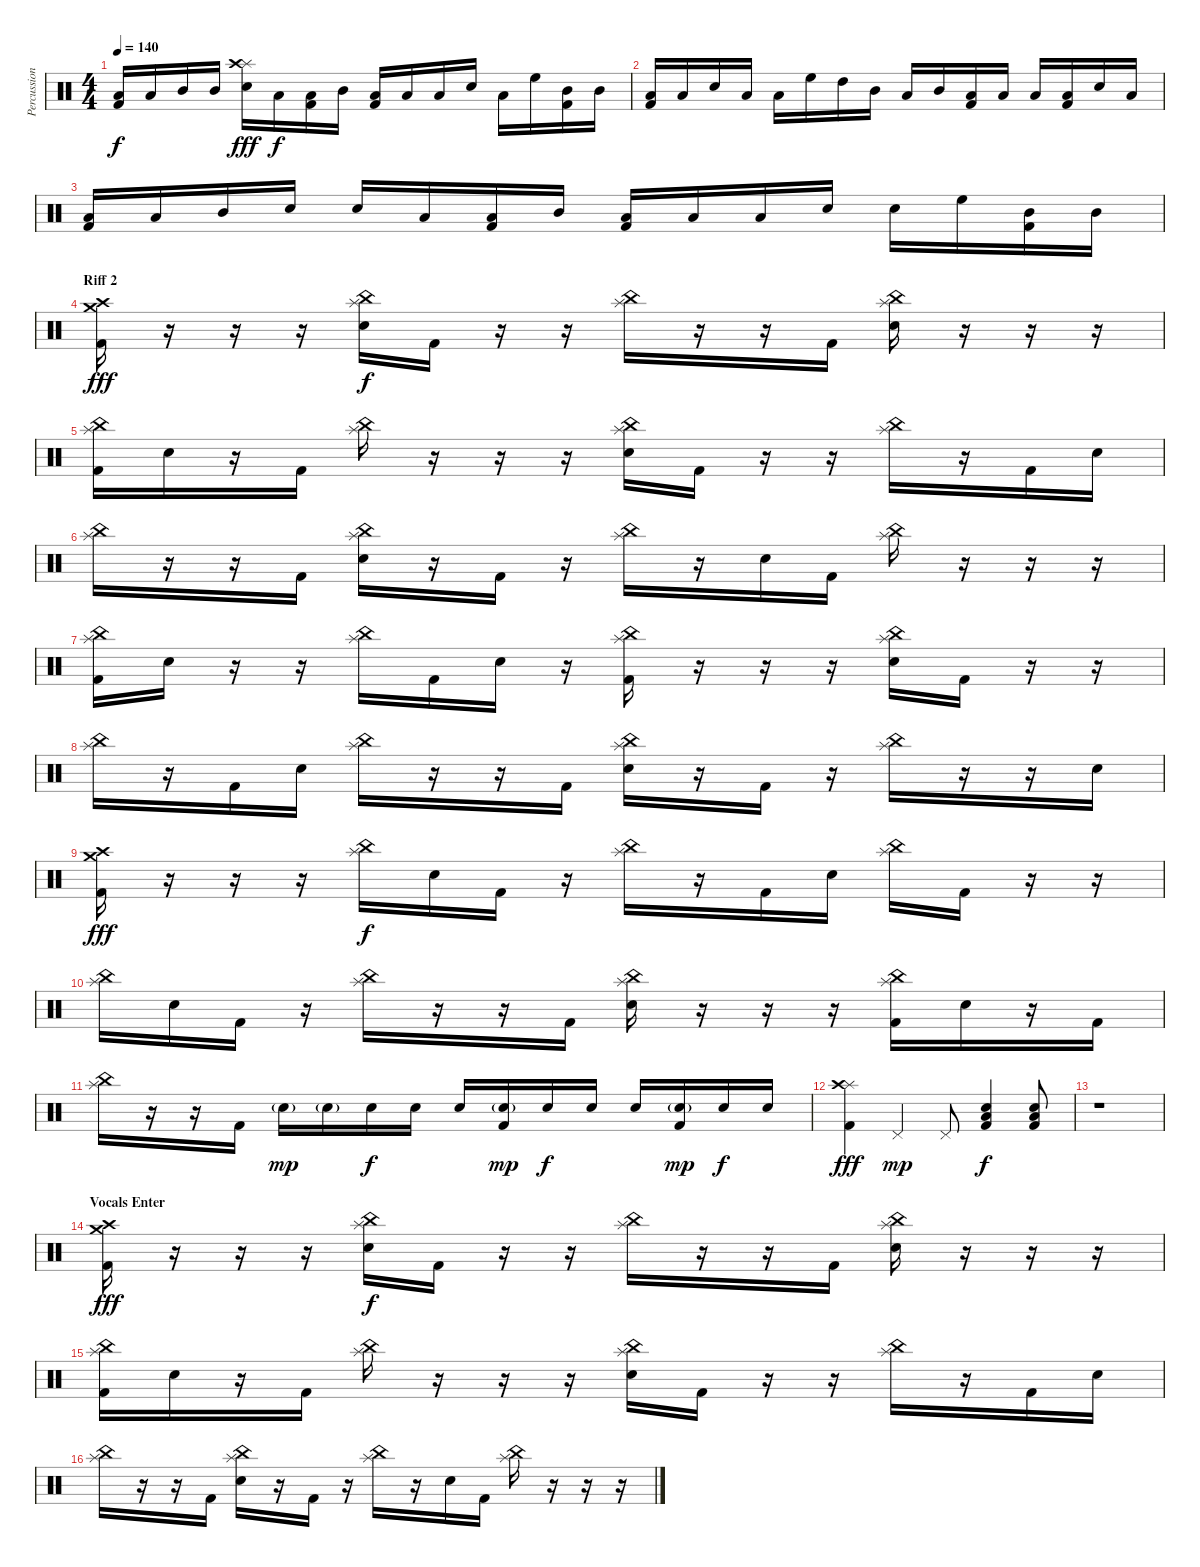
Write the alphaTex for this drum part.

\track ("Percussion" "Percussion") {instrument percussion}
\staff {score}
\articulation defaults
\ts (4 4)
\tempo 140
\clef neutral
\ks c
("Low Tom (hit)" "Kick (hit) 2").16{dy f} "Low Floor Tom (hit)".16 "Mid Tom (hit)".16 "Mid Tom (hit)".16 ("Splash (hit)" "Crash high (hit)" "Electric Snare (hit)").16{dy fff} "Low Tom (hit)".16{dy f} ("Low Floor Tom (hit)" "Kick (hit) 2").16 "Mid Tom (hit)".16 ("Low Tom (hit)" "Kick (hit) 2").16 "Low Tom (hit)".16 "Low Floor Tom (hit)".16 "Electric Snare (hit)".16 "Low Floor Tom (hit)".16 "High Floor Tom (hit)".16 ("Mid Tom (hit)" "Kick (hit) 2").16 "Mid Tom (hit)".16 |
("Low Tom (hit)" "Kick (hit) 2").16 "Low Floor Tom (hit)".16 "Electric Snare (hit)".16 "Low Tom (hit)".16 "Low Floor Tom (hit)".16 "High Floor Tom (hit)".16 "High Tom (hit)".16 "Mid Tom (hit)".16 "Low Tom (hit)".16 "Mid Tom (hit)".16 ("Low Tom (hit)" "Kick (hit) 2").16 "Low Floor Tom (hit)".16 "Low Tom (hit)".16 ("Low Floor Tom (hit)" "Kick (hit) 2").16 "Electric Snare (hit)".16 "Low Tom (hit)".16 |
("Low Tom (hit)" "Kick (hit) 2").16 "Low Floor Tom (hit)".16 "Mid Tom (hit)".16 "Electric Snare (hit)".16 "Electric Snare (hit)".16 "Low Tom (hit)".16 ("Low Floor Tom (hit)" "Kick (hit) 2").16 "Mid Tom (hit)".16 ("Low Tom (hit)" "Kick (hit) 2").16 "Low Tom (hit)".16 "Low Floor Tom (hit)".16 "Electric Snare (hit)".16 "Electric Snare (hit)".16 "High Floor Tom (hit)".16 ("Mid Tom (hit)" "Kick (hit) 2").16 "Mid Tom (hit)".16 |
\section ("" "Riff 2")
("Crash medium (hit)" "Crash high (hit)" "Kick (hit) 2").16{dy fff} r.16 r.16 r.16 ("China (hit)" "Splash (hit)" "Electric Snare (hit)").16{dy f} "Kick (hit) 2".16 r.16 r.16 ("China (hit)" "Splash (hit)").16 r.16 r.16 "Kick (hit) 2".16 ("China (hit)" "Splash (hit)" "Electric Snare (hit)").16 r.16 r.16 r.16 |
("China (hit)" "Splash (hit)" "Kick (hit) 2").16 "Electric Snare (hit)".16 r.16 "Kick (hit) 2".16 ("China (hit)" "Splash (hit)").16 r.16 r.16 r.16 ("China (hit)" "Splash (hit)" "Electric Snare (hit)").16 "Kick (hit) 2".16 r.16 r.16 ("China (hit)" "Splash (hit)").16 r.16 "Kick (hit) 2".16 "Electric Snare (hit)".16 |
("China (hit)" "Splash (hit)").16 r.16 r.16 "Kick (hit) 2".16 ("China (hit)" "Splash (hit)" "Electric Snare (hit)").16 r.16 "Kick (hit) 2".16 r.16 ("China (hit)" "Splash (hit)").16 r.16 "Electric Snare (hit)".16 "Kick (hit) 2".16 ("China (hit)" "Splash (hit)").16 r.16 r.16 r.16 |
("China (hit)" "Splash (hit)" "Kick (hit) 2").16 "Electric Snare (hit)".16 r.16 r.16 ("China (hit)" "Splash (hit)").16 "Kick (hit) 2".16 "Electric Snare (hit)".16 r.16 ("China (hit)" "Splash (hit)" "Kick (hit) 2").16 r.16 r.16 r.16 ("China (hit)" "Splash (hit)" "Electric Snare (hit)").16 "Kick (hit) 2".16 r.16 r.16 |
("China (hit)" "Splash (hit)").16 r.16 "Kick (hit) 2".16 "Electric Snare (hit)".16 ("China (hit)" "Splash (hit)").16 r.16 r.16 "Kick (hit) 2".16 ("China (hit)" "Splash (hit)" "Electric Snare (hit)").16 r.16 "Kick (hit) 2".16 r.16 ("China (hit)" "Splash (hit)").16 r.16 r.16 "Electric Snare (hit)".16 |
("Crash medium (hit)" "Crash high (hit)" "Kick (hit) 2").16{dy fff} r.16 r.16 r.16 ("China (hit)" "Splash (hit)").16{dy f} "Electric Snare (hit)".16 "Kick (hit) 2".16 r.16 ("China (hit)" "Splash (hit)").16 r.16 "Kick (hit) 2".16 "Electric Snare (hit)".16 ("China (hit)" "Splash (hit)").16 "Kick (hit) 2".16 r.16 r.16 |
("China (hit)" "Splash (hit)").16 "Electric Snare (hit)".16 "Kick (hit) 2".16 r.16 ("China (hit)" "Splash (hit)").16 r.16 r.16 "Kick (hit) 2".16 ("China (hit)" "Splash (hit)" "Electric Snare (hit)").16 r.16 r.16 r.16 ("China (hit)" "Splash (hit)" "Kick (hit) 2").16 "Electric Snare (hit)".16 r.16 "Kick (hit) 2".16 |
("China (hit)" "Splash (hit)").16 r.16 r.16 "Kick (hit) 2".16 "Electric Snare (hit)"{g}.16{dy mp} "Electric Snare (hit)"{g}.16 "Electric Snare (hit)".16{dy f} "Electric Snare (hit)".16 "Electric Snare (hit)".16 ("Electric Snare (hit)"{g} "Kick (hit) 2").16{dy mp} "Electric Snare (hit)".16{dy f} "Electric Snare (hit)".16 "Electric Snare (hit)".16 ("Electric Snare (hit)"{g} "Kick (hit) 2").16{dy mp} "Electric Snare (hit)".16{dy f} "Electric Snare (hit)".16 |
("Splash (hit)" "Crash high (hit)" "Kick (hit) 2").4{dy fff} "Pedal Hi-Hat (hit)".4{dy mp} "Pedal Hi-Hat (hit)".8 ("Electric Snare (hit)" "Low Floor Tom (hit)" "Kick (hit) 2").4{dy f} ("Electric Snare (hit)" "Low Floor Tom (hit)" "Kick (hit) 2").8 |
r.1 |
\section ("" "Vocals Enter")
("Crash medium (hit)" "Crash high (hit)" "Kick (hit) 2").16{dy fff} r.16 r.16 r.16 ("China (hit)" "Splash (hit)" "Electric Snare (hit)").16{dy f} "Kick (hit) 2".16 r.16 r.16 ("China (hit)" "Splash (hit)").16 r.16 r.16 "Kick (hit) 2".16 ("China (hit)" "Splash (hit)" "Electric Snare (hit)").16 r.16 r.16 r.16 |
("China (hit)" "Splash (hit)" "Kick (hit) 2").16 "Electric Snare (hit)".16 r.16 "Kick (hit) 2".16 ("China (hit)" "Splash (hit)").16 r.16 r.16 r.16 ("China (hit)" "Splash (hit)" "Electric Snare (hit)").16 "Kick (hit) 2".16 r.16 r.16 ("China (hit)" "Splash (hit)").16 r.16 "Kick (hit) 2".16 "Electric Snare (hit)".16 |
("China (hit)" "Splash (hit)").16 r.16 r.16 "Kick (hit) 2".16 ("China (hit)" "Splash (hit)" "Electric Snare (hit)").16 r.16 "Kick (hit) 2".16 r.16 ("China (hit)" "Splash (hit)").16 r.16 "Electric Snare (hit)".16 "Kick (hit) 2".16 ("China (hit)" "Splash (hit)").16 r.16 r.16 r.16
